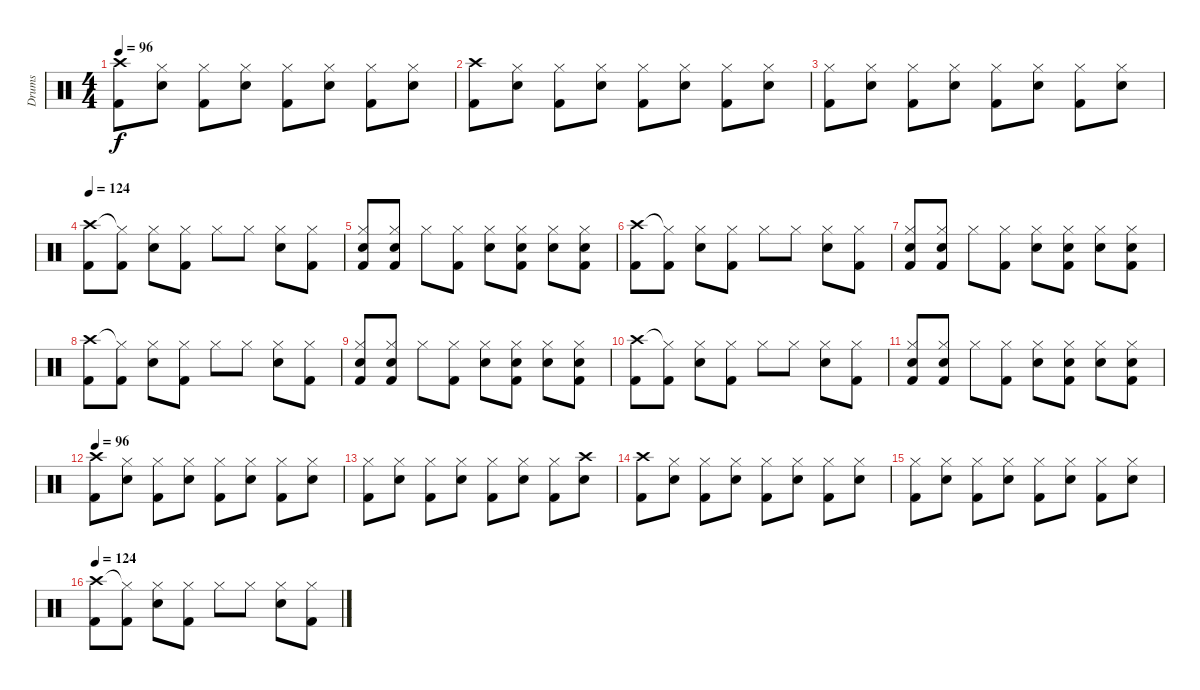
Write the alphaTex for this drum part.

\track ("Drums" "Drums") {instrument percussion}
\staff {score}
\articulation defaults
\ts (4 4)
\tempo 96
\clef neutral
\ks c
("Crash high (hit)" "Kick (hit) 2").8{dy f} ("Hi-Hat (closed)" "Electric Snare (hit)").8 ("Hi-Hat (closed)" "Kick (hit) 2").8 ("Hi-Hat (closed)" "Electric Snare (hit)").8 ("Hi-Hat (closed)" "Kick (hit) 2").8 ("Hi-Hat (closed)" "Electric Snare (hit)").8 ("Hi-Hat (closed)" "Kick (hit) 2").8 ("Hi-Hat (closed)" "Electric Snare (hit)").8 |
("Crash high (hit)" "Kick (hit) 2").8 ("Hi-Hat (closed)" "Electric Snare (hit)").8 ("Hi-Hat (closed)" "Kick (hit) 2").8 ("Hi-Hat (closed)" "Electric Snare (hit)").8 ("Hi-Hat (closed)" "Kick (hit) 2").8 ("Hi-Hat (closed)" "Electric Snare (hit)").8 ("Hi-Hat (closed)" "Kick (hit) 2").8 ("Hi-Hat (closed)" "Electric Snare (hit)").8 |
("Hi-Hat (closed)" "Kick (hit) 2").8 ("Hi-Hat (closed)" "Electric Snare (hit)").8 ("Hi-Hat (closed)" "Kick (hit) 2").8 ("Hi-Hat (closed)" "Electric Snare (hit)").8 ("Hi-Hat (closed)" "Kick (hit) 2").8 ("Hi-Hat (closed)" "Electric Snare (hit)").8 ("Hi-Hat (closed)" "Kick (hit) 2").8 ("Hi-Hat (closed)" "Electric Snare (hit)").8 |
\tempo 124
("Crash high (hit)" "Kick (hit) 2").8 ("Hi-Hat (closed)"{t} "Kick (hit) 2").8 ("Hi-Hat (closed)" "Electric Snare (hit)").8 ("Hi-Hat (closed)" "Kick (hit) 2").8 "Hi-Hat (closed)".8 "Hi-Hat (closed)".8 ("Hi-Hat (closed)" "Electric Snare (hit)").8 ("Hi-Hat (closed)" "Kick (hit) 2").8 |
("Hi-Hat (closed)" "Electric Snare (hit)" "Kick (hit) 2").8 ("Hi-Hat (closed)" "Electric Snare (hit)" "Kick (hit) 2").8 "Hi-Hat (closed)".8 ("Hi-Hat (closed)" "Kick (hit) 2").8 ("Hi-Hat (closed)" "Electric Snare (hit)").8 ("Hi-Hat (closed)" "Electric Snare (hit)" "Kick (hit) 2").8 ("Hi-Hat (closed)" "Electric Snare (hit)").8 ("Hi-Hat (closed)" "Electric Snare (hit)" "Kick (hit) 2").8 |
("Crash high (hit)" "Kick (hit) 2").8 ("Hi-Hat (closed)"{t} "Kick (hit) 2").8 ("Hi-Hat (closed)" "Electric Snare (hit)").8 ("Hi-Hat (closed)" "Kick (hit) 2").8 "Hi-Hat (closed)".8 "Hi-Hat (closed)".8 ("Hi-Hat (closed)" "Electric Snare (hit)").8 ("Hi-Hat (closed)" "Kick (hit) 2").8 |
("Hi-Hat (closed)" "Electric Snare (hit)" "Kick (hit) 2").8 ("Hi-Hat (closed)" "Electric Snare (hit)" "Kick (hit) 2").8 "Hi-Hat (closed)".8 ("Hi-Hat (closed)" "Kick (hit) 2").8 ("Hi-Hat (closed)" "Electric Snare (hit)").8 ("Hi-Hat (closed)" "Electric Snare (hit)" "Kick (hit) 2").8 ("Hi-Hat (closed)" "Electric Snare (hit)").8 ("Hi-Hat (closed)" "Electric Snare (hit)" "Kick (hit) 2").8 |
("Crash high (hit)" "Kick (hit) 2").8 ("Hi-Hat (closed)"{t} "Kick (hit) 2").8 ("Hi-Hat (closed)" "Electric Snare (hit)").8 ("Hi-Hat (closed)" "Kick (hit) 2").8 "Hi-Hat (closed)".8 "Hi-Hat (closed)".8 ("Hi-Hat (closed)" "Electric Snare (hit)").8 ("Hi-Hat (closed)" "Kick (hit) 2").8 |
("Hi-Hat (closed)" "Electric Snare (hit)" "Kick (hit) 2").8 ("Hi-Hat (closed)" "Electric Snare (hit)" "Kick (hit) 2").8 "Hi-Hat (closed)".8 ("Hi-Hat (closed)" "Kick (hit) 2").8 ("Hi-Hat (closed)" "Electric Snare (hit)").8 ("Hi-Hat (closed)" "Electric Snare (hit)" "Kick (hit) 2").8 ("Hi-Hat (closed)" "Electric Snare (hit)").8 ("Hi-Hat (closed)" "Electric Snare (hit)" "Kick (hit) 2").8 |
("Crash high (hit)" "Kick (hit) 2").8 ("Hi-Hat (closed)"{t} "Kick (hit) 2").8 ("Hi-Hat (closed)" "Electric Snare (hit)").8 ("Hi-Hat (closed)" "Kick (hit) 2").8 "Hi-Hat (closed)".8 "Hi-Hat (closed)".8 ("Hi-Hat (closed)" "Electric Snare (hit)").8 ("Hi-Hat (closed)" "Kick (hit) 2").8 |
("Hi-Hat (closed)" "Electric Snare (hit)" "Kick (hit) 2").8 ("Hi-Hat (closed)" "Electric Snare (hit)" "Kick (hit) 2").8 "Hi-Hat (closed)".8 ("Hi-Hat (closed)" "Kick (hit) 2").8 ("Hi-Hat (closed)" "Electric Snare (hit)").8 ("Hi-Hat (closed)" "Electric Snare (hit)" "Kick (hit) 2").8 ("Hi-Hat (closed)" "Electric Snare (hit)").8 ("Hi-Hat (closed)" "Electric Snare (hit)" "Kick (hit) 2").8 |
\tempo 96
("Crash high (hit)" "Kick (hit) 2").8 ("Hi-Hat (closed)" "Electric Snare (hit)").8 ("Hi-Hat (closed)" "Kick (hit) 2").8 ("Hi-Hat (closed)" "Electric Snare (hit)").8 ("Hi-Hat (closed)" "Kick (hit) 2").8 ("Hi-Hat (closed)" "Electric Snare (hit)").8 ("Hi-Hat (closed)" "Kick (hit) 2").8 ("Hi-Hat (closed)" "Electric Snare (hit)").8 |
("Hi-Hat (closed)" "Kick (hit) 2").8 ("Hi-Hat (closed)" "Electric Snare (hit)").8 ("Hi-Hat (closed)" "Kick (hit) 2").8 ("Hi-Hat (closed)" "Electric Snare (hit)").8 ("Hi-Hat (closed)" "Kick (hit) 2").8 ("Hi-Hat (closed)" "Electric Snare (hit)").8 ("Hi-Hat (closed)" "Kick (hit) 2").8 ("Crash high (hit)" "Electric Snare (hit)").8 |
("Crash high (hit)" "Kick (hit) 2").8 ("Hi-Hat (closed)" "Electric Snare (hit)").8 ("Hi-Hat (closed)" "Kick (hit) 2").8 ("Hi-Hat (closed)" "Electric Snare (hit)").8 ("Hi-Hat (closed)" "Kick (hit) 2").8 ("Hi-Hat (closed)" "Electric Snare (hit)").8 ("Hi-Hat (closed)" "Kick (hit) 2").8 ("Hi-Hat (closed)" "Electric Snare (hit)").8 |
("Hi-Hat (closed)" "Kick (hit) 2").8 ("Hi-Hat (closed)" "Electric Snare (hit)").8 ("Hi-Hat (closed)" "Kick (hit) 2").8 ("Hi-Hat (closed)" "Electric Snare (hit)").8 ("Hi-Hat (closed)" "Kick (hit) 2").8 ("Hi-Hat (closed)" "Electric Snare (hit)").8 ("Hi-Hat (closed)" "Kick (hit) 2").8 ("Hi-Hat (closed)" "Electric Snare (hit)").8 |
\tempo 124
("Crash high (hit)" "Kick (hit) 2").8 ("Hi-Hat (closed)"{t} "Kick (hit) 2").8 ("Hi-Hat (closed)" "Electric Snare (hit)").8 ("Hi-Hat (closed)" "Kick (hit) 2").8 "Hi-Hat (closed)".8 "Hi-Hat (closed)".8 ("Hi-Hat (closed)" "Electric Snare (hit)").8 ("Hi-Hat (closed)" "Kick (hit) 2").8
